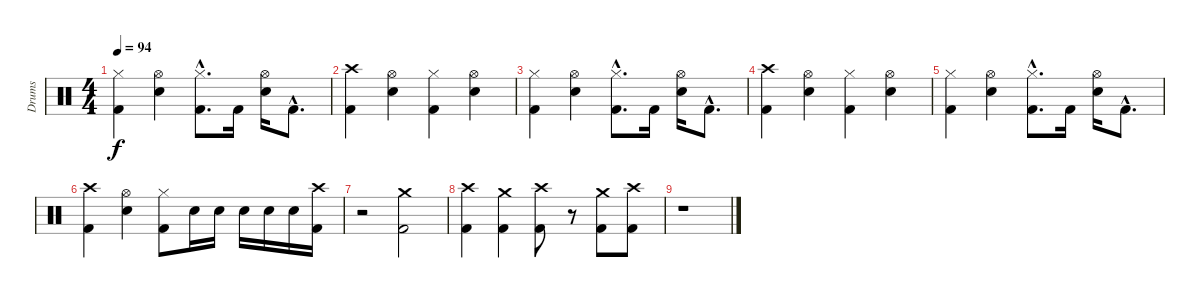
\track ("Drums" "Drums") {instrument percussion}
\staff {score}
\articulation defaults
\ts (4 4)
\tempo 94
\clef neutral
\ks c
("Hi-Hat (closed)" "Kick (hit) 2").4{dy f} ("Hi-Hat (open)" "Snare (hit) 2").4 ("Hi-Hat (closed)"{hac} "Kick (hit) 2"{hac}).8{d} "Kick (hit) 2".16 ("Hi-Hat (open)" "Snare (hit) 2").16 "Kick (hit) 2"{hac}.8{d} |
("Crash high (hit)" "Kick (hit) 2").4 ("Hi-Hat (open)" "Snare (hit) 2").4 ("Hi-Hat (closed)" "Kick (hit) 2").4 ("Hi-Hat (open)" "Snare (hit) 2").4 |
("Hi-Hat (closed)" "Kick (hit) 2").4 ("Hi-Hat (open)" "Snare (hit) 2").4 ("Hi-Hat (closed)"{hac} "Kick (hit) 2"{hac}).8{d} "Kick (hit) 2".16 ("Hi-Hat (open)" "Snare (hit) 2").16 "Kick (hit) 2"{hac}.8{d} |
("Crash high (hit)" "Kick (hit) 2").4 ("Hi-Hat (open)" "Snare (hit) 2").4 ("Hi-Hat (closed)" "Kick (hit) 2").4 ("Hi-Hat (open)" "Snare (hit) 2").4 |
("Hi-Hat (closed)" "Kick (hit) 2").4 ("Hi-Hat (open)" "Snare (hit) 2").4 ("Hi-Hat (closed)"{hac} "Kick (hit) 2"{hac}).8{d} "Kick (hit) 2".16 ("Hi-Hat (open)" "Snare (hit) 2").16 "Kick (hit) 2"{hac}.8{d} |
("Crash high (hit)" "Kick (hit) 2").4 ("Hi-Hat (open)" "Snare (hit) 2").4 ("Hi-Hat (closed)" "Kick (hit) 2").8 "Snare (hit) 2".16 "Snare (hit) 2".16 "Snare (hit) 2".16 "Snare (hit) 2".16 "Snare (hit) 2".16 ("Crash high (hit)" "Kick (hit) 2").16 |
r.2 ("Crash medium (hit)" "Kick (hit) 2").2 |
("Crash high (hit)" "Kick (hit) 2").4 ("Crash medium (hit)" "Kick (hit) 2").4 ("Crash high (hit)" "Kick (hit) 2").8 r.8 ("Crash medium (hit)" "Kick (hit) 2").8 ("Crash high (hit)" "Kick (hit) 2").8 |
r.1
